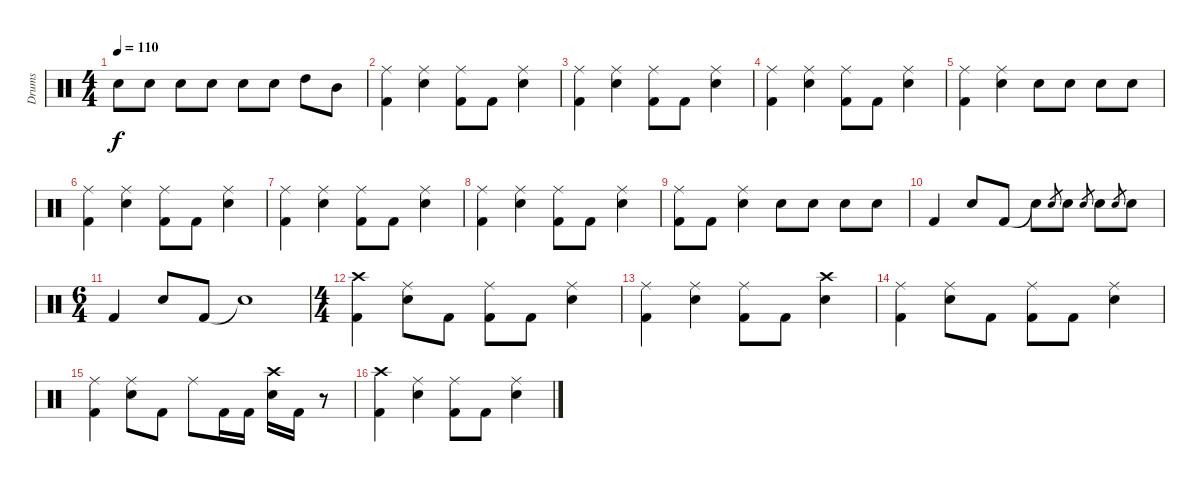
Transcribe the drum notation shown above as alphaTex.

\track ("Drums" "Drums") {instrument percussion}
\staff {score}
\articulation defaults
\ts (4 4)
\tempo 110
\clef neutral
\ks c "Electric Snare (hit)".8{dy f} "Electric Snare (hit)".8 "Electric Snare (hit)".8 "Electric Snare (hit)".8 "Electric Snare (hit)".8 "Electric Snare (hit)".8 "High Tom (hit)".8 "Mid Tom (hit)".8
|
("Ride (middle)" "Kick (hit) 2").4 ("Ride (middle)" "Electric Snare (hit)").4 ("Ride (middle)" "Kick (hit) 2").8 "Kick (hit) 2".8 ("Ride (middle)" "Electric Snare (hit)").4 |
("Ride (middle)" "Kick (hit) 2").4 ("Ride (middle)" "Electric Snare (hit)").4 ("Ride (middle)" "Kick (hit) 2").8 "Kick (hit) 2".8 ("Ride (middle)" "Electric Snare (hit)").4 |
("Ride (middle)" "Kick (hit) 2").4 ("Ride (middle)" "Electric Snare (hit)").4 ("Ride (middle)" "Kick (hit) 2").8 "Kick (hit) 2".8 ("Ride (middle)" "Electric Snare (hit)").4 |
("Ride (middle)" "Kick (hit) 2").4 ("Ride (middle)" "Electric Snare (hit)").4 "Electric Snare (hit)".8 "Electric Snare (hit)".8 "Electric Snare (hit)".8 "Electric Snare (hit)".8 |
("Ride (middle)" "Kick (hit) 2").4 ("Ride (middle)" "Electric Snare (hit)").4 ("Ride (middle)" "Kick (hit) 2").8 "Kick (hit) 2".8 ("Ride (middle)" "Electric Snare (hit)").4 |
("Ride (middle)" "Kick (hit) 2").4 ("Ride (middle)" "Electric Snare (hit)").4 ("Ride (middle)" "Kick (hit) 2").8 "Kick (hit) 2".8 ("Ride (middle)" "Electric Snare (hit)").4 |
("Ride (middle)" "Kick (hit) 2").4 ("Ride (middle)" "Electric Snare (hit)").4 ("Ride (middle)" "Kick (hit) 2").8 "Kick (hit) 2".8 ("Ride (middle)" "Electric Snare (hit)").4 |
("Ride (middle)" "Kick (hit) 2").8 "Kick (hit) 2".8 ("Ride (middle)" "Electric Snare (hit)").4 "Electric Snare (hit)".8 "Electric Snare (hit)".8 "Electric Snare (hit)".8 "Electric Snare (hit)".8 |
"Kick (hit) 2".4 "Electric Snare (hit)".8 "Kick (hit) 2".8 "Snare (hit)"{t}.8 "Electric Snare (hit)".8{gr} "Electric Snare (hit)".8 "Electric Snare (hit)".8{gr} "Electric Snare (hit)".8 "Electric Snare (hit)".8{gr} "Electric Snare (hit)".8 |
\ts (6 4)
"Kick (hit) 2".4 "Electric Snare (hit)".8 "Kick (hit) 2".8 "Snare (hit)"{t}.1 |
\ts (4 4)
("Crash high (hit)" "Kick (hit) 2").4 ("Ride (middle)" "Electric Snare (hit)").8 "Kick (hit) 2".8 ("Ride (middle)" "Kick (hit) 2").8 "Kick (hit) 2".8 ("Ride (middle)" "Electric Snare (hit)").4 |
("Ride (middle)" "Kick (hit) 2").4 ("Ride (middle)" "Electric Snare (hit)").4 ("Ride (middle)" "Kick (hit) 2").8 "Kick (hit) 2".8 ("Crash high (hit)" "Electric Snare (hit)").4 |
("Ride (middle)" "Kick (hit) 2").4 ("Ride (middle)" "Electric Snare (hit)").8 "Kick (hit) 2".8 ("Ride (middle)" "Kick (hit) 2").8 "Kick (hit) 2".8 ("Ride (middle)" "Electric Snare (hit)").4 |
("Ride (middle)" "Kick (hit) 2").4 ("Ride (middle)" "Electric Snare (hit)").8 "Kick (hit) 2".8 "Ride (middle)".8 "Kick (hit) 2".16 "Kick (hit) 2".16 ("Crash high (hit)" "Electric Snare (hit)").16 "Kick (hit) 2".16 r.8 |
("Crash high (hit)" "Kick (hit) 2").4 ("Ride (middle)" "Electric Snare (hit)").4 ("Ride (middle)" "Kick (hit) 2").8 "Kick (hit) 2".8 ("Ride (middle)" "Electric Snare (hit)").4
